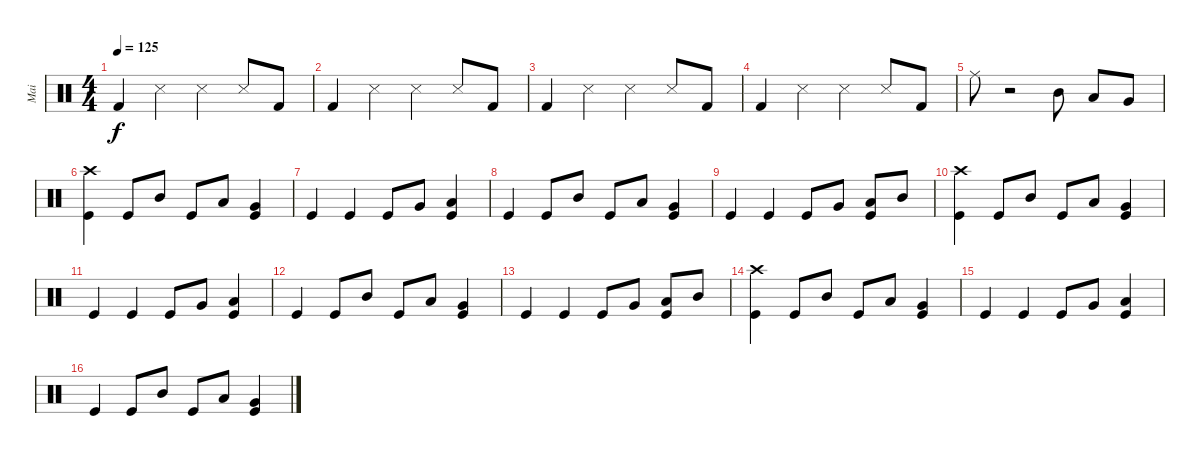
\track ("Mai" "Mai") {instrument percussion}
\staff {score}
\articulation defaults
\ts (4 4)
\tempo 125
\clef neutral
\ks c "Kick (hit) 2".4{dy f} "Snare (side stick) 3".4 "Snare (side stick) 3".4 "Snare (side stick) 3".8 "Kick (hit) 2".8
|
"Kick (hit) 2".4 "Snare (side stick) 3".4 "Snare (side stick) 3".4 "Snare (side stick) 3".8 "Kick (hit) 2".8 |
"Kick (hit) 2".4 "Snare (side stick) 3".4 "Snare (side stick) 3".4 "Snare (side stick) 3".8 "Kick (hit) 2".8 |
"Kick (hit) 2".4 "Snare (side stick) 3".4 "Snare (side stick) 3".4 "Snare (side stick) 3".8 "Kick (hit) 2".8 |
"Ride (middle)".8 r.2 "Mid Tom (hit)".8 "Low Tom (hit)".8 "Very Low Tom (hit)".8 |
("Kick (hit)" "Crash high (hit)").4 "Kick (hit)".8 "Mid Tom (hit)".8 "Kick (hit)".8 "Low Tom (hit)".8 ("Kick (hit)" "Very Low Tom (hit)").4 |
"Kick (hit)".4 "Kick (hit)".4 "Kick (hit)".8 "Very Low Tom (hit)".8 ("Kick (hit)" "Low Tom (hit)").4 |
"Kick (hit)".4 "Kick (hit)".8 "Mid Tom (hit)".8 "Kick (hit)".8 "Low Tom (hit)".8 ("Kick (hit)" "Very Low Tom (hit)").4 |
"Kick (hit)".4 "Kick (hit)".4 "Kick (hit)".8 "Very Low Tom (hit)".8 ("Kick (hit)" "Low Tom (hit)").8 "Mid Tom (hit)".8 |
("Kick (hit)" "Crash high (hit)").4 "Kick (hit)".8 "Mid Tom (hit)".8 "Kick (hit)".8 "Low Tom (hit)".8 ("Kick (hit)" "Very Low Tom (hit)").4 |
"Kick (hit)".4 "Kick (hit)".4 "Kick (hit)".8 "Very Low Tom (hit)".8 ("Kick (hit)" "Low Tom (hit)").4 |
"Kick (hit)".4 "Kick (hit)".8 "Mid Tom (hit)".8 "Kick (hit)".8 "Low Tom (hit)".8 ("Kick (hit)" "Very Low Tom (hit)").4 |
"Kick (hit)".4 "Kick (hit)".4 "Kick (hit)".8 "Very Low Tom (hit)".8 ("Kick (hit)" "Low Tom (hit)").8 "Mid Tom (hit)".8 |
("Kick (hit)" "Crash high (hit)").4 "Kick (hit)".8 "Mid Tom (hit)".8 "Kick (hit)".8 "Low Tom (hit)".8 ("Kick (hit)" "Very Low Tom (hit)").4 |
"Kick (hit)".4 "Kick (hit)".4 "Kick (hit)".8 "Very Low Tom (hit)".8 ("Kick (hit)" "Low Tom (hit)").4 |
"Kick (hit)".4 "Kick (hit)".8 "Mid Tom (hit)".8 "Kick (hit)".8 "Low Tom (hit)".8 ("Kick (hit)" "Very Low Tom (hit)").4
